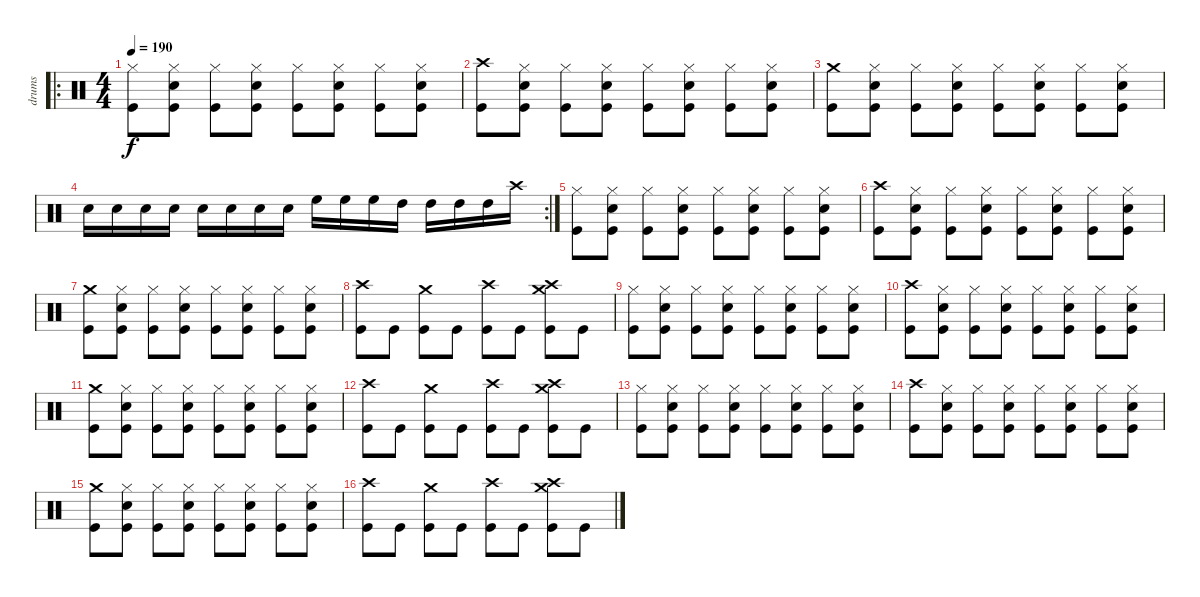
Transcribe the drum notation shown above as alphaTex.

\track ("drums" "drums") {instrument percussion}
\staff {score}
\articulation defaults
\ro
\ts (4 4)
\tempo 190
\clef neutral
\ks c
("Hi-Hat (closed)" "Kick (hit)").8{dy f} ("Hi-Hat (closed)" "Snare (hit) 2" "Kick (hit)").8 ("Hi-Hat (closed)" "Kick (hit)").8 ("Hi-Hat (closed)" "Snare (hit) 2" "Kick (hit)").8 ("Hi-Hat (closed)" "Kick (hit)").8 ("Hi-Hat (closed)" "Snare (hit) 2" "Kick (hit)").8 ("Hi-Hat (closed)" "Kick (hit)").8 ("Hi-Hat (closed)" "Snare (hit) 2" "Kick (hit)").8 |
("Crash high (hit)" "Kick (hit)").8 ("Hi-Hat (closed)" "Snare (hit) 2" "Kick (hit)").8 ("Hi-Hat (closed)" "Kick (hit)").8 ("Hi-Hat (closed)" "Snare (hit) 2" "Kick (hit)").8 ("Hi-Hat (closed)" "Kick (hit)").8 ("Hi-Hat (closed)" "Snare (hit) 2" "Kick (hit)").8 ("Hi-Hat (closed)" "Kick (hit)").8 ("Hi-Hat (closed)" "Snare (hit) 2" "Kick (hit)").8 |
("Crash medium (hit)" "Kick (hit)").8 ("Hi-Hat (closed)" "Snare (hit) 2" "Kick (hit)").8 ("Hi-Hat (closed)" "Kick (hit)").8 ("Hi-Hat (closed)" "Snare (hit) 2" "Kick (hit)").8 ("Hi-Hat (closed)" "Kick (hit)").8 ("Hi-Hat (closed)" "Snare (hit) 2" "Kick (hit)").8 ("Hi-Hat (closed)" "Kick (hit)").8 ("Hi-Hat (closed)" "Snare (hit) 2" "Kick (hit)").8 |
\rc 2 "Snare (hit) 2".16 "Snare (hit) 2".16 "Snare (hit) 2".16 "Snare (hit) 2".16 "Snare (hit) 2".16 "Snare (hit) 2".16 "Snare (hit) 2".16 "Snare (hit) 2".16 "High Floor Tom (hit)".16 "High Floor Tom (hit)".16 "High Floor Tom (hit)".16 "High Tom (hit)".16 "High Tom (hit)".16 "High Tom (hit)".16 "High Tom (hit)".16 "Crash high (hit)".16
|
("Hi-Hat (closed)" "Kick (hit)").8 ("Hi-Hat (closed)" "Snare (hit) 2" "Kick (hit)").8 ("Hi-Hat (closed)" "Kick (hit)").8 ("Hi-Hat (closed)" "Snare (hit) 2" "Kick (hit)").8 ("Hi-Hat (closed)" "Kick (hit)").8 ("Hi-Hat (closed)" "Snare (hit) 2" "Kick (hit)").8 ("Hi-Hat (closed)" "Kick (hit)").8 ("Hi-Hat (closed)" "Snare (hit) 2" "Kick (hit)").8 |
("Crash high (hit)" "Kick (hit)").8 ("Hi-Hat (closed)" "Snare (hit) 2" "Kick (hit)").8 ("Hi-Hat (closed)" "Kick (hit)").8 ("Hi-Hat (closed)" "Snare (hit) 2" "Kick (hit)").8 ("Hi-Hat (closed)" "Kick (hit)").8 ("Hi-Hat (closed)" "Snare (hit) 2" "Kick (hit)").8 ("Hi-Hat (closed)" "Kick (hit)").8 ("Hi-Hat (closed)" "Snare (hit) 2" "Kick (hit)").8 |
("Crash medium (hit)" "Kick (hit)").8 ("Hi-Hat (closed)" "Snare (hit) 2" "Kick (hit)").8 ("Hi-Hat (closed)" "Kick (hit)").8 ("Hi-Hat (closed)" "Snare (hit) 2" "Kick (hit)").8 ("Hi-Hat (closed)" "Kick (hit)").8 ("Hi-Hat (closed)" "Snare (hit) 2" "Kick (hit)").8 ("Hi-Hat (closed)" "Kick (hit)").8 ("Hi-Hat (closed)" "Snare (hit) 2" "Kick (hit)").8 |
("Crash high (hit)" "Kick (hit)").8 "Kick (hit)".8 ("Crash medium (hit)" "Kick (hit)").8 "Kick (hit)".8 ("Crash high (hit)" "Kick (hit)").8 "Kick (hit)".8 ("Crash high (hit)" "Crash medium (hit)" "Kick (hit)").8 "Kick (hit)".8 |
("Hi-Hat (closed)" "Kick (hit)").8 ("Hi-Hat (closed)" "Snare (hit) 2" "Kick (hit)").8 ("Hi-Hat (closed)" "Kick (hit)").8 ("Hi-Hat (closed)" "Snare (hit) 2" "Kick (hit)").8 ("Hi-Hat (closed)" "Kick (hit)").8 ("Hi-Hat (closed)" "Snare (hit) 2" "Kick (hit)").8 ("Hi-Hat (closed)" "Kick (hit)").8 ("Hi-Hat (closed)" "Snare (hit) 2" "Kick (hit)").8 |
("Crash high (hit)" "Kick (hit)").8 ("Hi-Hat (closed)" "Snare (hit) 2" "Kick (hit)").8 ("Hi-Hat (closed)" "Kick (hit)").8 ("Hi-Hat (closed)" "Snare (hit) 2" "Kick (hit)").8 ("Hi-Hat (closed)" "Kick (hit)").8 ("Hi-Hat (closed)" "Snare (hit) 2" "Kick (hit)").8 ("Hi-Hat (closed)" "Kick (hit)").8 ("Hi-Hat (closed)" "Snare (hit) 2" "Kick (hit)").8 |
("Crash medium (hit)" "Kick (hit)").8 ("Hi-Hat (closed)" "Snare (hit) 2" "Kick (hit)").8 ("Hi-Hat (closed)" "Kick (hit)").8 ("Hi-Hat (closed)" "Snare (hit) 2" "Kick (hit)").8 ("Hi-Hat (closed)" "Kick (hit)").8 ("Hi-Hat (closed)" "Snare (hit) 2" "Kick (hit)").8 ("Hi-Hat (closed)" "Kick (hit)").8 ("Hi-Hat (closed)" "Snare (hit) 2" "Kick (hit)").8 |
("Crash high (hit)" "Kick (hit)").8 "Kick (hit)".8 ("Crash medium (hit)" "Kick (hit)").8 "Kick (hit)".8 ("Crash high (hit)" "Kick (hit)").8 "Kick (hit)".8 ("Crash high (hit)" "Crash medium (hit)" "Kick (hit)").8 "Kick (hit)".8 |
("Hi-Hat (closed)" "Kick (hit)").8 ("Hi-Hat (closed)" "Snare (hit) 2" "Kick (hit)").8 ("Hi-Hat (closed)" "Kick (hit)").8 ("Hi-Hat (closed)" "Snare (hit) 2" "Kick (hit)").8 ("Hi-Hat (closed)" "Kick (hit)").8 ("Hi-Hat (closed)" "Snare (hit) 2" "Kick (hit)").8 ("Hi-Hat (closed)" "Kick (hit)").8 ("Hi-Hat (closed)" "Snare (hit) 2" "Kick (hit)").8 |
("Crash high (hit)" "Kick (hit)").8 ("Hi-Hat (closed)" "Snare (hit) 2" "Kick (hit)").8 ("Hi-Hat (closed)" "Kick (hit)").8 ("Hi-Hat (closed)" "Snare (hit) 2" "Kick (hit)").8 ("Hi-Hat (closed)" "Kick (hit)").8 ("Hi-Hat (closed)" "Snare (hit) 2" "Kick (hit)").8 ("Hi-Hat (closed)" "Kick (hit)").8 ("Hi-Hat (closed)" "Snare (hit) 2" "Kick (hit)").8 |
("Crash medium (hit)" "Kick (hit)").8 ("Hi-Hat (closed)" "Snare (hit) 2" "Kick (hit)").8 ("Hi-Hat (closed)" "Kick (hit)").8 ("Hi-Hat (closed)" "Snare (hit) 2" "Kick (hit)").8 ("Hi-Hat (closed)" "Kick (hit)").8 ("Hi-Hat (closed)" "Snare (hit) 2" "Kick (hit)").8 ("Hi-Hat (closed)" "Kick (hit)").8 ("Hi-Hat (closed)" "Snare (hit) 2" "Kick (hit)").8 |
("Crash high (hit)" "Kick (hit)").8 "Kick (hit)".8 ("Crash medium (hit)" "Kick (hit)").8 "Kick (hit)".8 ("Crash high (hit)" "Kick (hit)").8 "Kick (hit)".8 ("Crash high (hit)" "Crash medium (hit)" "Kick (hit)").8 "Kick (hit)".8
